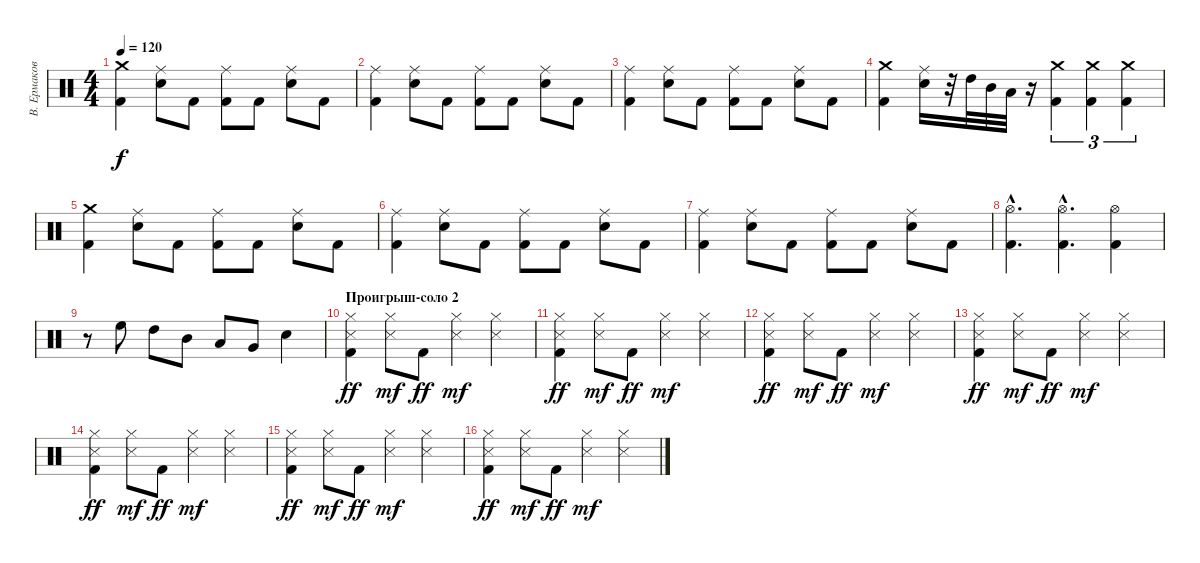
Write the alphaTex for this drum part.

\track ("В. Ермаков" "В. Ермаков") {instrument percussion}
\staff {score}
\articulation defaults
\ts (4 4)
\tempo 120
\clef neutral
\ks c
("Crash medium (hit)" "Kick (hit) 2").4{dy f} ("Ride (middle)" "Electric Snare (hit)").8 "Kick (hit) 2".8 ("Ride (middle)" "Kick (hit) 2").8 "Kick (hit) 2".8 ("Ride (middle)" "Electric Snare (hit)").8 "Kick (hit) 2".8 |
("Ride (middle)" "Kick (hit) 2").4 ("Ride (middle)" "Electric Snare (hit)").8 "Kick (hit) 2".8 ("Ride (middle)" "Kick (hit) 2").8 "Kick (hit) 2".8 ("Ride (middle)" "Electric Snare (hit)").8 "Kick (hit) 2".8 |
("Ride (middle)" "Kick (hit) 2").4 ("Ride (middle)" "Electric Snare (hit)").8 "Kick (hit) 2".8 ("Ride (middle)" "Kick (hit) 2").8 "Kick (hit) 2".8 ("Ride (middle)" "Electric Snare (hit)").8 "Kick (hit) 2".8 |
("Crash medium (hit)" "Kick (hit) 2").4 ("Ride (middle)" "Electric Snare (hit)").16 r.32 "High Tom (hit)".32 "Mid Tom (hit)".32 "Low Tom (hit)".32 r.16 ("Crash medium (hit)" "Kick (hit) 2").4{tu (3 2)} ("Crash medium (hit)" "Kick (hit) 2").4{tu (3 2)} ("Crash medium (hit)" "Kick (hit) 2").4{tu (3 2)} |
("Crash medium (hit)" "Kick (hit) 2").4 ("Ride (middle)" "Electric Snare (hit)").8 "Kick (hit) 2".8 ("Ride (middle)" "Kick (hit) 2").8 "Kick (hit) 2".8 ("Ride (middle)" "Electric Snare (hit)").8 "Kick (hit) 2".8 |
("Ride (middle)" "Kick (hit) 2").4 ("Ride (middle)" "Electric Snare (hit)").8 "Kick (hit) 2".8 ("Ride (middle)" "Kick (hit) 2").8 "Kick (hit) 2".8 ("Ride (middle)" "Electric Snare (hit)").8 "Kick (hit) 2".8 |
("Ride (middle)" "Kick (hit) 2").4 ("Ride (middle)" "Electric Snare (hit)").8 "Kick (hit) 2".8 ("Ride (middle)" "Kick (hit) 2").8 "Kick (hit) 2".8 ("Ride (middle)" "Electric Snare (hit)").8 "Kick (hit) 2".8 |
("Hi-Hat (open)"{hac} "Kick (hit) 2"{hac}).4{d} ("Hi-Hat (open)"{hac} "Kick (hit) 2"{hac}).4{d} ("Hi-Hat (open)" "Kick (hit) 2").4 |
r.8 "High Floor Tom (hit)".8 "High Tom (hit)".8 "Mid Tom (hit)".8 "Low Tom (hit)".8 "Very Low Tom (hit)".8 "Electric Snare (hit)".4 |
\section ("" "Проигрыш-соло 2")
("Snare (side stick) 3" "Kick (hit) 2" "Hi-Hat (closed)").4{dy ff} ("Snare (side stick) 3" "Hi-Hat (closed)").8{dy mf} "Kick (hit) 2".8{dy ff} ("Snare (side stick) 3" "Hi-Hat (closed)").4{dy mf} ("Snare (side stick) 3" "Hi-Hat (closed)").4 |
("Snare (side stick) 3" "Kick (hit) 2" "Hi-Hat (closed)").4{dy ff} ("Snare (side stick) 3" "Hi-Hat (closed)").8{dy mf} "Kick (hit) 2".8{dy ff} ("Snare (side stick) 3" "Hi-Hat (closed)").4{dy mf} ("Snare (side stick) 3" "Hi-Hat (closed)").4 |
("Snare (side stick) 3" "Kick (hit) 2" "Hi-Hat (closed)").4{dy ff} ("Snare (side stick) 3" "Hi-Hat (closed)").8{dy mf} "Kick (hit) 2".8{dy ff} ("Snare (side stick) 3" "Hi-Hat (closed)").4{dy mf} ("Snare (side stick) 3" "Hi-Hat (closed)").4 |
("Snare (side stick) 3" "Kick (hit) 2" "Hi-Hat (closed)").4{dy ff} ("Snare (side stick) 3" "Hi-Hat (closed)").8{dy mf} "Kick (hit) 2".8{dy ff} ("Snare (side stick) 3" "Hi-Hat (closed)").4{dy mf} ("Snare (side stick) 3" "Hi-Hat (closed)").4 |
("Snare (side stick) 3" "Kick (hit) 2" "Hi-Hat (closed)").4{dy ff} ("Snare (side stick) 3" "Hi-Hat (closed)").8{dy mf} "Kick (hit) 2".8{dy ff} ("Snare (side stick) 3" "Hi-Hat (closed)").4{dy mf} ("Snare (side stick) 3" "Hi-Hat (closed)").4 |
("Snare (side stick) 3" "Kick (hit) 2" "Hi-Hat (closed)").4{dy ff} ("Snare (side stick) 3" "Hi-Hat (closed)").8{dy mf} "Kick (hit) 2".8{dy ff} ("Snare (side stick) 3" "Hi-Hat (closed)").4{dy mf} ("Snare (side stick) 3" "Hi-Hat (closed)").4 |
("Snare (side stick) 3" "Kick (hit) 2" "Hi-Hat (closed)").4{dy ff} ("Snare (side stick) 3" "Hi-Hat (closed)").8{dy mf} "Kick (hit) 2".8{dy ff} ("Snare (side stick) 3" "Hi-Hat (closed)").4{dy mf} ("Snare (side stick) 3" "Hi-Hat (closed)").4
